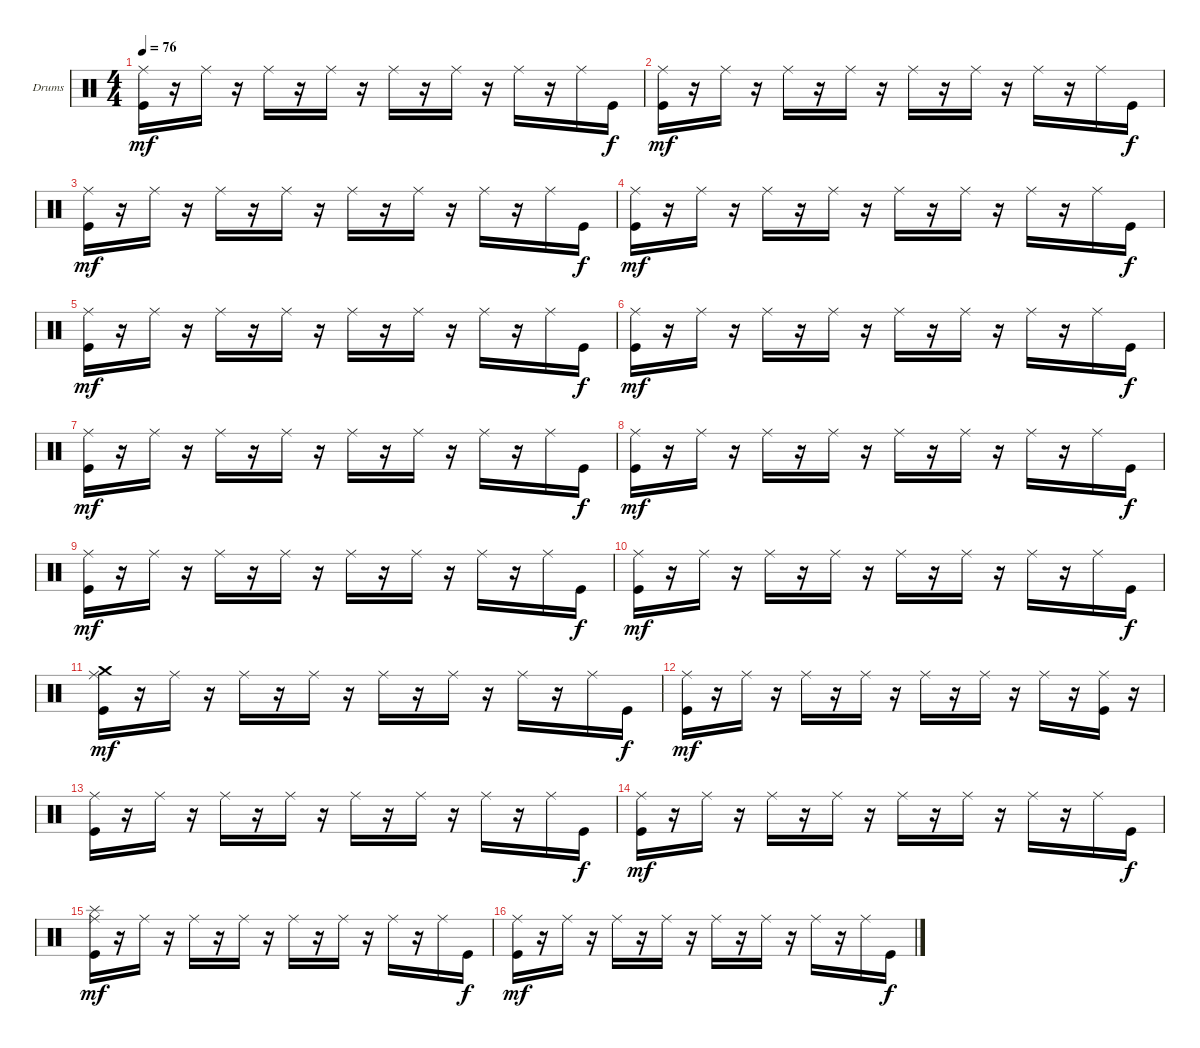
\bracketExtendMode groupsimilarinstruments
\firstSystemTrackNameOrientation horizontal
\otherSystemsTrackNameOrientation horizontal
\track ("Drumkit" "Drums") {instrument percussion}
\staff {score}
\articulation defaults
\ts (4 4)
\tempo 76
\clef neutral
\ks c
("Ride (middle)" "Kick (hit)").16{dy mf} r.16 "Ride (middle)".16 r.16 "Ride (middle)".16 r.16 "Ride (middle)".16 r.16 "Ride (middle)".16 r.16 "Ride (middle)".16 r.16 "Ride (middle)".16 r.16 "Ride (middle)".16 "Kick (hit)".16{dy f} |
("Ride (middle)" "Kick (hit)").16{dy mf} r.16 "Ride (middle)".16 r.16 "Ride (middle)".16 r.16 "Ride (middle)".16 r.16 "Ride (middle)".16 r.16 "Ride (middle)".16 r.16 "Ride (middle)".16 r.16 "Ride (middle)".16 "Kick (hit)".16{dy f} |
("Ride (middle)" "Kick (hit)").16{dy mf} r.16 "Ride (middle)".16 r.16 "Ride (middle)".16 r.16 "Ride (middle)".16 r.16 "Ride (middle)".16 r.16 "Ride (middle)".16 r.16 "Ride (middle)".16 r.16 "Ride (middle)".16 "Kick (hit)".16{dy f} |
("Ride (middle)" "Kick (hit)").16{dy mf} r.16 "Ride (middle)".16 r.16 "Ride (middle)".16 r.16 "Ride (middle)".16 r.16 "Ride (middle)".16 r.16 "Ride (middle)".16 r.16 "Ride (middle)".16 r.16 "Ride (middle)".16 "Kick (hit)".16{dy f} |
("Ride (middle)" "Kick (hit)").16{dy mf} r.16 "Ride (middle)".16 r.16 "Ride (middle)".16 r.16 "Ride (middle)".16 r.16 "Ride (middle)".16 r.16 "Ride (middle)".16 r.16 "Ride (middle)".16 r.16 "Ride (middle)".16 "Kick (hit)".16{dy f} |
("Ride (middle)" "Kick (hit)").16{dy mf} r.16 "Ride (middle)".16 r.16 "Ride (middle)".16 r.16 "Ride (middle)".16 r.16 "Ride (middle)".16 r.16 "Ride (middle)".16 r.16 "Ride (middle)".16 r.16 "Ride (middle)".16 "Kick (hit)".16{dy f} |
("Ride (middle)" "Kick (hit)").16{dy mf} r.16 "Ride (middle)".16 r.16 "Ride (middle)".16 r.16 "Ride (middle)".16 r.16 "Ride (middle)".16 r.16 "Ride (middle)".16 r.16 "Ride (middle)".16 r.16 "Ride (middle)".16 "Kick (hit)".16{dy f} |
("Ride (middle)" "Kick (hit)").16{dy mf} r.16 "Ride (middle)".16 r.16 "Ride (middle)".16 r.16 "Ride (middle)".16 r.16 "Ride (middle)".16 r.16 "Ride (middle)".16 r.16 "Ride (middle)".16 r.16 "Ride (middle)".16 "Kick (hit)".16{dy f} |
("Ride (middle)" "Kick (hit)").16{dy mf} r.16 "Ride (middle)".16 r.16 "Ride (middle)".16 r.16 "Ride (middle)".16 r.16 "Ride (middle)".16 r.16 "Ride (middle)".16 r.16 "Ride (middle)".16 r.16 "Ride (middle)".16 "Kick (hit)".16{dy f} |
("Ride (middle)" "Kick (hit)").16{dy mf} r.16 "Ride (middle)".16 r.16 "Ride (middle)".16 r.16 "Ride (middle)".16 r.16 "Ride (middle)".16 r.16 "Ride (middle)".16 r.16 "Ride (middle)".16 r.16 "Ride (middle)".16 "Kick (hit)".16{dy f} |
("Ride (middle)" "Crash medium (hit)" "Kick (hit)").16{dy mf} r.16 "Ride (middle)".16 r.16 "Ride (middle)".16 r.16 "Ride (middle)".16 r.16 "Ride (middle)".16 r.16 "Ride (middle)".16 r.16 "Ride (middle)".16 r.16 "Ride (middle)".16 "Kick (hit)".16{dy f} |
("Ride (middle)" "Kick (hit)").16{dy mf} r.16 "Ride (middle)".16 r.16 "Ride (middle)".16 r.16 "Ride (middle)".16 r.16 "Ride (middle)".16 r.16 "Ride (middle)".16 r.16 "Ride (middle)".16 r.16 ("Ride (middle)" "Kick (hit)").16 r.16 |
("Ride (middle)" "Kick (hit)").16 r.16 "Ride (middle)".16 r.16 "Ride (middle)".16 r.16 "Ride (middle)".16 r.16 "Ride (middle)".16 r.16 "Ride (middle)".16 r.16 "Ride (middle)".16 r.16 "Ride (middle)".16 "Kick (hit)".16{dy f} |
("Ride (middle)" "Kick (hit)").16{dy mf} r.16 "Ride (middle)".16 r.16 "Ride (middle)".16 r.16 "Ride (middle)".16 r.16 "Ride (middle)".16 r.16 "Ride (middle)".16 r.16 "Ride (middle)".16 r.16 "Ride (middle)".16 "Kick (hit)".16{dy f} |
("Ride (middle)" "Splash (hit)" "Kick (hit)").16{dy mf} r.16 "Ride (middle)".16 r.16 "Ride (middle)".16 r.16 "Ride (middle)".16 r.16 "Ride (middle)".16 r.16 "Ride (middle)".16 r.16 "Ride (middle)".16 r.16 "Ride (middle)".16 "Kick (hit)".16{dy f} |
("Ride (middle)" "Kick (hit)").16{dy mf} r.16 "Ride (middle)".16 r.16 "Ride (middle)".16 r.16 "Ride (middle)".16 r.16 "Ride (middle)".16 r.16 "Ride (middle)".16 r.16 "Ride (middle)".16 r.16 "Ride (middle)".16 "Kick (hit)".16{dy f}
